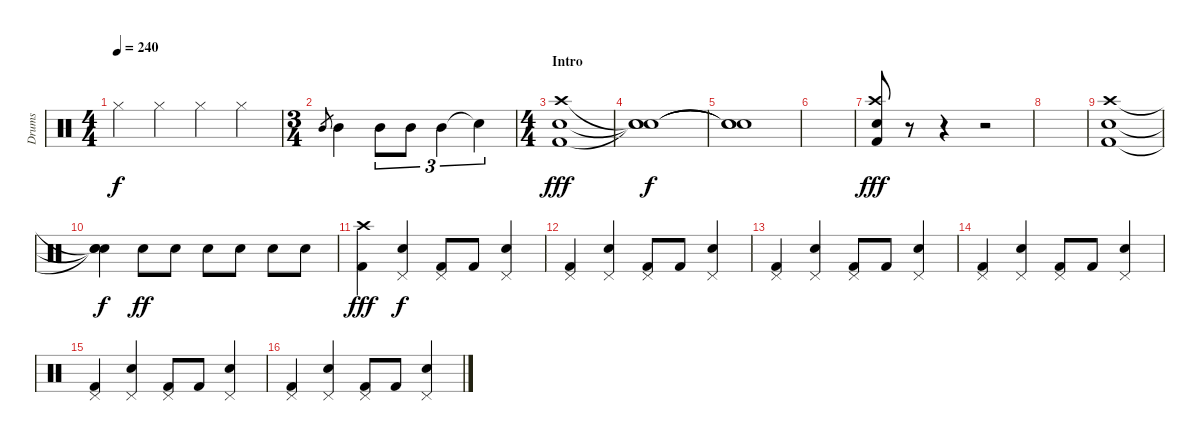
\track ("Drums" "Drums") {instrument percussion}
\staff {score}
\articulation defaults
\ts (4 4)
\tempo 240
\clef neutral
\ks c "Hi-Hat (closed)".4{dy f} "Hi-Hat (closed)".4 "Hi-Hat (closed)".4 "Hi-Hat (closed)".4
|
\ts (3 4)
"Mid Tom (hit)".8{gr} "Mid Tom (hit)".4 "Mid Tom (hit)".8{tu (3 2)} "Mid Tom (hit)".8{tu (3 2)} "Mid Tom (hit)".4{tu (3 2)} "Snare (hit)"{t}.4{tu (3 2)} |
\ts (4 4)
\section ("" "Intro")
("Crash high (hit)" "Snare (hit) 2" "Kick (hit) 2").1{dy fff} |
("Snare (hit)"{t} "Snare (hit)"{t} "Snare (hit)"{t}).1{dy f} |
("Snare (hit)"{t} "Snare (hit)"{t} "Snare (hit)"{t}).1 |
|
("Crash high (hit)" "Snare (hit) 2" "Kick (hit) 2").8{dy fff} r.8 r.4 r.2 |
|
("Crash high (hit)" "Snare (hit) 2" "Kick (hit) 2").1 |
("Snare (hit)"{t} "Snare (hit)"{t} "Snare (hit)"{t}).4{dy f} "Electric Snare (hit)".8{dy ff} "Electric Snare (hit)".8 "Electric Snare (hit)".8 "Electric Snare (hit)".8 "Electric Snare (hit)".8 "Electric Snare (hit)".8 |
("Crash high (hit)" "Kick (hit) 2").4{dy fff} ("Pedal Hi-Hat (hit)" "Snare (hit) 2").4{dy f} ("Pedal Hi-Hat (hit)" "Kick (hit) 2").8 "Kick (hit) 2".8 ("Pedal Hi-Hat (hit)" "Snare (hit) 2").4 |
("Pedal Hi-Hat (hit)" "Kick (hit) 2").4 ("Pedal Hi-Hat (hit)" "Snare (hit) 2").4 ("Pedal Hi-Hat (hit)" "Kick (hit) 2").8 "Kick (hit) 2".8 ("Pedal Hi-Hat (hit)" "Snare (hit) 2").4 |
("Pedal Hi-Hat (hit)" "Kick (hit) 2").4 ("Pedal Hi-Hat (hit)" "Snare (hit) 2").4 ("Pedal Hi-Hat (hit)" "Kick (hit) 2").8 "Kick (hit) 2".8 ("Pedal Hi-Hat (hit)" "Snare (hit) 2").4 |
("Pedal Hi-Hat (hit)" "Kick (hit) 2").4 ("Pedal Hi-Hat (hit)" "Snare (hit) 2").4 ("Pedal Hi-Hat (hit)" "Kick (hit) 2").8 "Kick (hit) 2".8 ("Pedal Hi-Hat (hit)" "Snare (hit) 2").4 |
("Pedal Hi-Hat (hit)" "Kick (hit) 2").4 ("Pedal Hi-Hat (hit)" "Snare (hit) 2").4 ("Pedal Hi-Hat (hit)" "Kick (hit) 2").8 "Kick (hit) 2".8 ("Pedal Hi-Hat (hit)" "Snare (hit) 2").4 |
("Pedal Hi-Hat (hit)" "Kick (hit) 2").4 ("Pedal Hi-Hat (hit)" "Snare (hit) 2").4 ("Pedal Hi-Hat (hit)" "Kick (hit) 2").8 "Kick (hit) 2".8 ("Pedal Hi-Hat (hit)" "Snare (hit) 2").4
